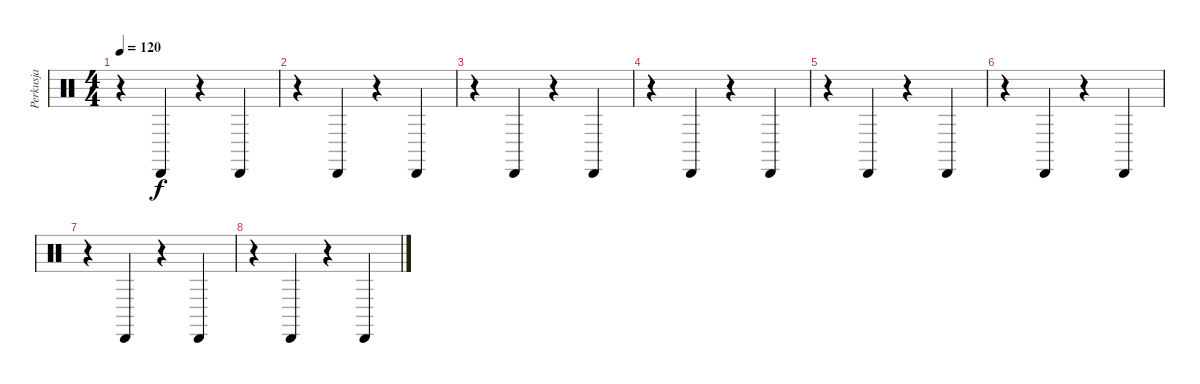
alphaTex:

\track ("Perkusja" "Perkusja") {instrument percussion}
\staff {score}
\articulation defaults
\ts (4 4)
\tempo 120
\clef neutral
\ks c
r.4{dy f} "Cabasa (hit)".4 r.4 "Cabasa (hit)".4 |
r.4 "Cabasa (hit)".4 r.4 "Cabasa (hit)".4 |
r.4 "Cabasa (hit)".4 r.4 "Cabasa (hit)".4 |
r.4 "Cabasa (hit)".4 r.4 "Cabasa (hit)".4 |
r.4 "Cabasa (hit)".4 r.4 "Cabasa (hit)".4 |
r.4 "Cabasa (hit)".4 r.4 "Cabasa (hit)".4 |
r.4 "Cabasa (hit)".4 r.4 "Cabasa (hit)".4 |
r.4 "Cabasa (hit)".4 r.4 "Cabasa (hit)".4
